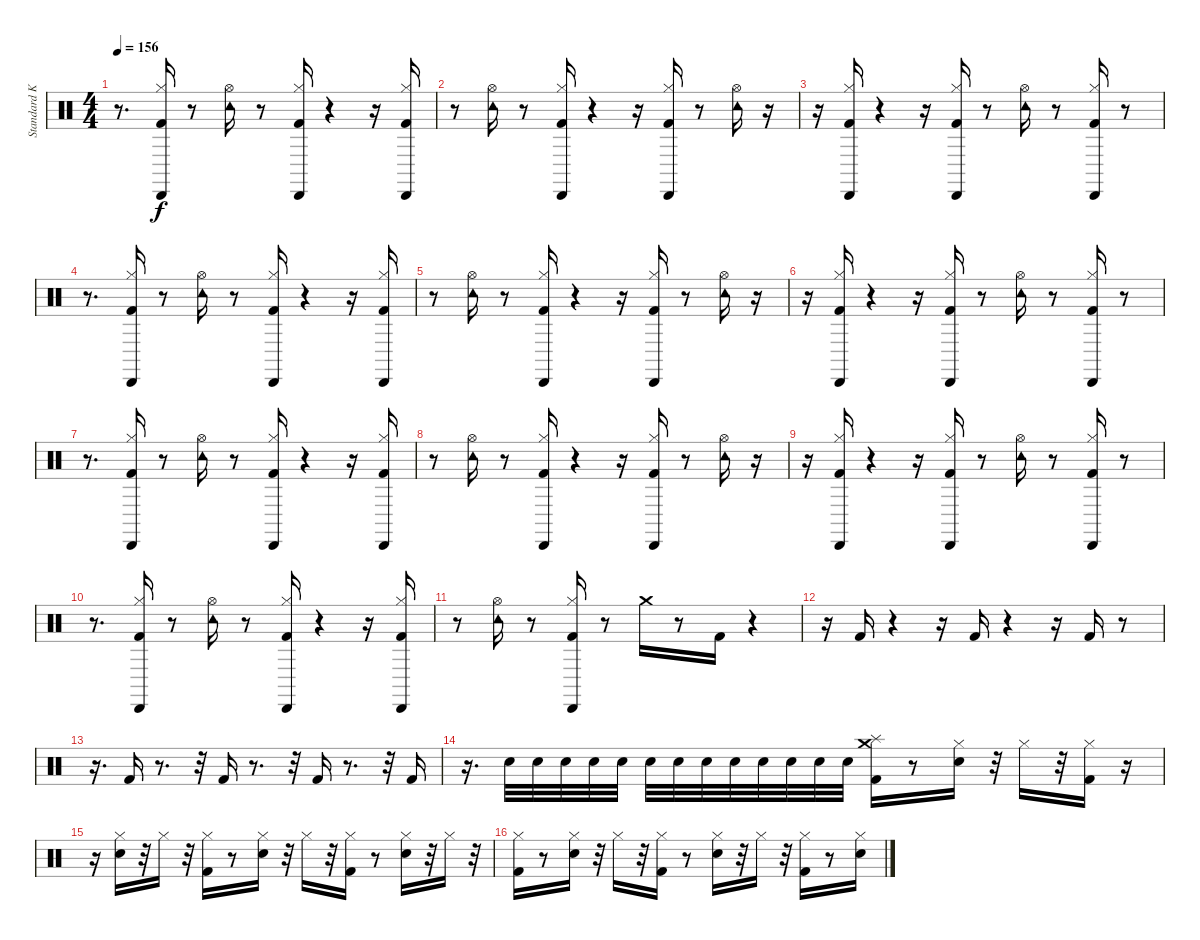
\track ("Standard Kit" "Standard K") {instrument percussion}
\staff {score}
\articulation defaults
\ts (4 4)
\tempo 156
\clef neutral
\ks c
r.8{d dy f} ("Kick (hit) 2" "Hi-Hat (closed)" "Cabasa (hit)").16 r.8 ("Hi-Hat (open)" "Tambourine (hit)").16 r.8 ("Kick (hit) 2" "Hi-Hat (closed)" "Cabasa (hit)").16 r.4 r.16 ("Kick (hit) 2" "Hi-Hat (closed)" "Cabasa (hit)").16 |
r.8 ("Hi-Hat (open)" "Tambourine (hit)").16 r.8 ("Kick (hit) 2" "Hi-Hat (closed)" "Cabasa (hit)").16 r.4 r.16 ("Kick (hit) 2" "Hi-Hat (closed)" "Cabasa (hit)").16 r.8 ("Hi-Hat (open)" "Tambourine (hit)").16 r.16 |
r.16 ("Kick (hit) 2" "Hi-Hat (closed)" "Cabasa (hit)").16 r.4 r.16 ("Kick (hit) 2" "Hi-Hat (closed)" "Cabasa (hit)").16 r.8 ("Hi-Hat (open)" "Tambourine (hit)").16 r.8 ("Kick (hit) 2" "Hi-Hat (closed)" "Cabasa (hit)").16 r.8 |
r.8{d} ("Kick (hit) 2" "Hi-Hat (closed)" "Cabasa (hit)").16 r.8 ("Hi-Hat (open)" "Tambourine (hit)").16 r.8 ("Kick (hit) 2" "Hi-Hat (closed)" "Cabasa (hit)").16 r.4 r.16 ("Kick (hit) 2" "Hi-Hat (closed)" "Cabasa (hit)").16 |
r.8 ("Hi-Hat (open)" "Tambourine (hit)").16 r.8 ("Kick (hit) 2" "Hi-Hat (closed)" "Cabasa (hit)").16 r.4 r.16 ("Kick (hit) 2" "Hi-Hat (closed)" "Cabasa (hit)").16 r.8 ("Hi-Hat (open)" "Tambourine (hit)").16 r.16 |
r.16 ("Kick (hit) 2" "Hi-Hat (closed)" "Cabasa (hit)").16 r.4 r.16 ("Kick (hit) 2" "Hi-Hat (closed)" "Cabasa (hit)").16 r.8 ("Hi-Hat (open)" "Tambourine (hit)").16 r.8 ("Kick (hit) 2" "Hi-Hat (closed)" "Cabasa (hit)").16 r.8 |
r.8{d} ("Kick (hit) 2" "Hi-Hat (closed)" "Cabasa (hit)").16 r.8 ("Hi-Hat (open)" "Tambourine (hit)").16 r.8 ("Kick (hit) 2" "Hi-Hat (closed)" "Cabasa (hit)").16 r.4 r.16 ("Kick (hit) 2" "Hi-Hat (closed)" "Cabasa (hit)").16 |
r.8 ("Hi-Hat (open)" "Tambourine (hit)").16 r.8 ("Kick (hit) 2" "Hi-Hat (closed)" "Cabasa (hit)").16 r.4 r.16 ("Kick (hit) 2" "Hi-Hat (closed)" "Cabasa (hit)").16 r.8 ("Hi-Hat (open)" "Tambourine (hit)").16 r.16 |
r.16 ("Kick (hit) 2" "Hi-Hat (closed)" "Cabasa (hit)").16 r.4 r.16 ("Kick (hit) 2" "Hi-Hat (closed)" "Cabasa (hit)").16 r.8 ("Hi-Hat (open)" "Tambourine (hit)").16 r.8 ("Kick (hit) 2" "Hi-Hat (closed)" "Cabasa (hit)").16 r.8 |
r.8{d} ("Kick (hit) 2" "Hi-Hat (closed)" "Cabasa (hit)").16 r.8 ("Hi-Hat (open)" "Tambourine (hit)").16 r.8 ("Kick (hit) 2" "Hi-Hat (closed)" "Cabasa (hit)").16 r.4 r.16 ("Kick (hit) 2" "Hi-Hat (closed)" "Cabasa (hit)").16 |
r.8 ("Hi-Hat (open)" "Tambourine (hit)").16 r.8 ("Kick (hit) 2" "Hi-Hat (closed)" "Cabasa (hit)").16 r.8 "Crash medium (hit)".16 r.8 "Kick (hit) 2".16 r.4 |
r.16 "Kick (hit) 2".16 r.4 r.16 "Kick (hit) 2".16 r.4 r.16 "Kick (hit) 2".16 r.8 |
r.16{d} "Kick (hit) 2".16 r.8{d} r.32 "Kick (hit) 2".16 r.8{d} r.32 "Kick (hit) 2".16 r.8{d} r.32 "Kick (hit) 2".16 |
r.16{d} "Electric Snare (hit)".32 "Electric Snare (hit)".32 "Electric Snare (hit)".32 "Electric Snare (hit)".32 "Electric Snare (hit)".32 "Electric Snare (hit)".32 "Electric Snare (hit)".32 "Electric Snare (hit)".32 "Electric Snare (hit)".32 "Electric Snare (hit)".32 "Electric Snare (hit)".32 "Electric Snare (hit)".32 "Electric Snare (hit)".32 ("Kick (hit) 2" "Splash (hit)" "Crash medium (hit)").16 r.8 ("Electric Snare (hit)" "Hi-Hat (closed)").16 r.32 "Hi-Hat (closed)".16 r.32 ("Kick (hit) 2" "Hi-Hat (closed)").16 r.16 |
r.16 ("Electric Snare (hit)" "Hi-Hat (closed)").16 r.32 "Hi-Hat (closed)".16 r.32 ("Kick (hit) 2" "Hi-Hat (closed)").16 r.8 ("Electric Snare (hit)" "Hi-Hat (closed)").16 r.32 "Hi-Hat (closed)".16 r.32 ("Kick (hit) 2" "Hi-Hat (closed)").16 r.8 ("Electric Snare (hit)" "Hi-Hat (closed)").16 r.32 "Hi-Hat (closed)".16 r.32 |
("Kick (hit) 2" "Hi-Hat (closed)").16 r.8 ("Electric Snare (hit)" "Hi-Hat (closed)").16 r.32 "Hi-Hat (closed)".16 r.32 ("Kick (hit) 2" "Hi-Hat (closed)").16 r.8 ("Electric Snare (hit)" "Hi-Hat (closed)").16 r.32 "Hi-Hat (closed)".16 r.32 ("Kick (hit) 2" "Hi-Hat (closed)").16 r.8 ("Electric Snare (hit)" "Hi-Hat (closed)").16
